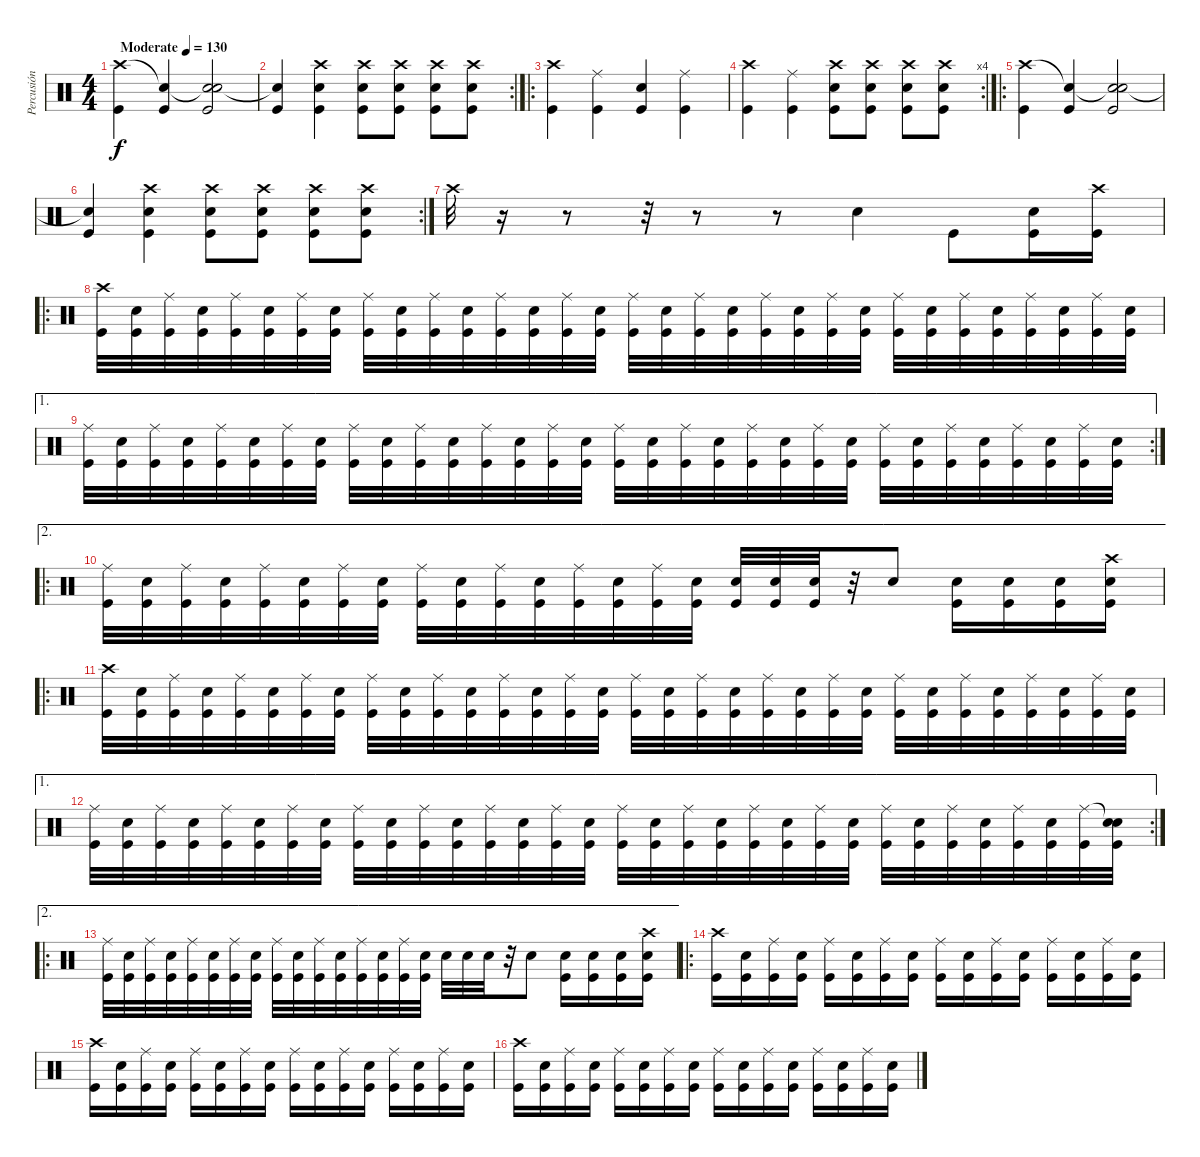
\track ("Percusión" "Percusión") {instrument percussion}
\staff {score}
\articulation defaults
\ts (4 4)
\tempo (130 "Moderate")
\clef neutral
\ks c
("Crash high (hit)" "Kick (hit)").4{dy f} ("Snare (hit)"{t} "Kick (hit)").4 ("Snare (hit)"{t} "Snare (hit) 2" "Kick (hit)").2 |
\rc 2
("Snare (hit)"{t} "Kick (hit)").4 ("Crash high (hit)" "Snare (hit) 2" "Kick (hit)").4 ("Crash high (hit)" "Snare (hit) 2" "Kick (hit)").8 ("Crash high (hit)" "Snare (hit) 2" "Kick (hit)").8 ("Crash high (hit)" "Snare (hit) 2" "Kick (hit)").8 ("Crash high (hit)" "Snare (hit) 2" "Kick (hit)").8 |
\ro
("Crash high (hit)" "Kick (hit)").4 ("Ride (middle)" "Kick (hit)").4 ("Electric Snare (hit)" "Kick (hit)").4 ("Ride (middle)" "Kick (hit)").4 |
\rc 4
("Crash high (hit)" "Kick (hit)").4 ("Ride (middle)" "Kick (hit)").4 ("Crash high (hit)" "Snare (hit) 2" "Kick (hit)").8 ("Crash high (hit)" "Snare (hit) 2" "Kick (hit)").8 ("Crash high (hit)" "Snare (hit) 2" "Kick (hit)").8 ("Crash high (hit)" "Snare (hit) 2" "Kick (hit)").8 |
\ro
("Crash high (hit)" "Kick (hit)").4 ("Snare (hit)"{t} "Kick (hit)").4 ("Snare (hit)"{t} "Snare (hit) 2" "Kick (hit)").2 |
\rc 2
("Snare (hit)"{t} "Kick (hit)").4 ("Crash high (hit)" "Snare (hit) 2" "Kick (hit)").4 ("Crash high (hit)" "Snare (hit) 2" "Kick (hit)").8 ("Crash high (hit)" "Snare (hit) 2" "Kick (hit)").8 ("Crash high (hit)" "Snare (hit) 2" "Kick (hit)").8 ("Crash high (hit)" "Snare (hit) 2" "Kick (hit)").8 |
"Crash high (hit)".32 r.16 r.8 r.32 r.8 r.8 "Electric Snare (hit)".4 "Kick (hit)".8 ("Electric Snare (hit)" "Kick (hit)").16 ("Crash high (hit)" "Kick (hit)").16 |
\ro
("Crash high (hit)" "Kick (hit)").32 ("Electric Snare (hit)" "Kick (hit)").32 ("Ride (middle)" "Kick (hit)").32 ("Electric Snare (hit)" "Kick (hit)").32 ("Ride (middle)" "Kick (hit)").32 ("Electric Snare (hit)" "Kick (hit)").32 ("Ride (middle)" "Kick (hit)").32 ("Electric Snare (hit)" "Kick (hit)").32 ("Ride (middle)" "Kick (hit)").32 ("Electric Snare (hit)" "Kick (hit)").32 ("Ride (middle)" "Kick (hit)").32 ("Electric Snare (hit)" "Kick (hit)").32 ("Ride (middle)" "Kick (hit)").32 ("Electric Snare (hit)" "Kick (hit)").32 ("Ride (middle)" "Kick (hit)").32 ("Electric Snare (hit)" "Kick (hit)").32 ("Ride (middle)" "Kick (hit)").32 ("Electric Snare (hit)" "Kick (hit)").32 ("Ride (middle)" "Kick (hit)").32 ("Electric Snare (hit)" "Kick (hit)").32 ("Ride (middle)" "Kick (hit)").32 ("Electric Snare (hit)" "Kick (hit)").32 ("Ride (middle)" "Kick (hit)").32 ("Electric Snare (hit)" "Kick (hit)").32 ("Ride (middle)" "Kick (hit)").32 ("Electric Snare (hit)" "Kick (hit)").32 ("Ride (middle)" "Kick (hit)").32 ("Electric Snare (hit)" "Kick (hit)").32 ("Ride (middle)" "Kick (hit)").32 ("Electric Snare (hit)" "Kick (hit)").32 ("Ride (middle)" "Kick (hit)").32 ("Electric Snare (hit)" "Kick (hit)").32 |
\ae 1
\rc 2
("Ride (middle)" "Kick (hit)").32 ("Electric Snare (hit)" "Kick (hit)").32 ("Ride (middle)" "Kick (hit)").32 ("Electric Snare (hit)" "Kick (hit)").32 ("Ride (middle)" "Kick (hit)").32 ("Electric Snare (hit)" "Kick (hit)").32 ("Ride (middle)" "Kick (hit)").32 ("Electric Snare (hit)" "Kick (hit)").32 ("Ride (middle)" "Kick (hit)").32 ("Electric Snare (hit)" "Kick (hit)").32 ("Ride (middle)" "Kick (hit)").32 ("Electric Snare (hit)" "Kick (hit)").32 ("Ride (middle)" "Kick (hit)").32 ("Electric Snare (hit)" "Kick (hit)").32 ("Ride (middle)" "Kick (hit)").32 ("Electric Snare (hit)" "Kick (hit)").32 ("Ride (middle)" "Kick (hit)").32 ("Electric Snare (hit)" "Kick (hit)").32 ("Ride (middle)" "Kick (hit)").32 ("Electric Snare (hit)" "Kick (hit)").32 ("Ride (middle)" "Kick (hit)").32 ("Electric Snare (hit)" "Kick (hit)").32 ("Ride (middle)" "Kick (hit)").32 ("Electric Snare (hit)" "Kick (hit)").32 ("Ride (middle)" "Kick (hit)").32 ("Electric Snare (hit)" "Kick (hit)").32 ("Ride (middle)" "Kick (hit)").32 ("Electric Snare (hit)" "Kick (hit)").32 ("Ride (middle)" "Kick (hit)").32 ("Electric Snare (hit)" "Kick (hit)").32 ("Ride (middle)" "Kick (hit)").32 ("Electric Snare (hit)" "Kick (hit)").32 |
\ae 2
\ro
("Ride (middle)" "Kick (hit)").32 ("Electric Snare (hit)" "Kick (hit)").32 ("Ride (middle)" "Kick (hit)").32 ("Electric Snare (hit)" "Kick (hit)").32 ("Ride (middle)" "Kick (hit)").32 ("Electric Snare (hit)" "Kick (hit)").32 ("Ride (middle)" "Kick (hit)").32 ("Electric Snare (hit)" "Kick (hit)").32 ("Ride (middle)" "Kick (hit)").32 ("Electric Snare (hit)" "Kick (hit)").32 ("Ride (middle)" "Kick (hit)").32 ("Electric Snare (hit)" "Kick (hit)").32 ("Ride (middle)" "Kick (hit)").32 ("Electric Snare (hit)" "Kick (hit)").32 ("Ride (middle)" "Kick (hit)").32 ("Electric Snare (hit)" "Kick (hit)").32 ("Electric Snare (hit)" "Kick (hit)").32 ("Electric Snare (hit)" "Kick (hit)").32 ("Electric Snare (hit)" "Kick (hit)").32 r.32 "Electric Snare (hit)".8 ("Electric Snare (hit)" "Kick (hit)").16 ("Electric Snare (hit)" "Kick (hit)").16 ("Electric Snare (hit)" "Kick (hit)").16 ("Crash high (hit)" "Electric Snare (hit)" "Kick (hit)").16 |
\ro
("Crash high (hit)" "Kick (hit)").32 ("Electric Snare (hit)" "Kick (hit)").32 ("Ride (middle)" "Kick (hit)").32 ("Electric Snare (hit)" "Kick (hit)").32 ("Ride (middle)" "Kick (hit)").32 ("Electric Snare (hit)" "Kick (hit)").32 ("Ride (middle)" "Kick (hit)").32 ("Electric Snare (hit)" "Kick (hit)").32 ("Ride (middle)" "Kick (hit)").32 ("Electric Snare (hit)" "Kick (hit)").32 ("Ride (middle)" "Kick (hit)").32 ("Electric Snare (hit)" "Kick (hit)").32 ("Ride (middle)" "Kick (hit)").32 ("Electric Snare (hit)" "Kick (hit)").32 ("Ride (middle)" "Kick (hit)").32 ("Electric Snare (hit)" "Kick (hit)").32 ("Ride (middle)" "Kick (hit)").32 ("Electric Snare (hit)" "Kick (hit)").32 ("Ride (middle)" "Kick (hit)").32 ("Electric Snare (hit)" "Kick (hit)").32 ("Ride (middle)" "Kick (hit)").32 ("Electric Snare (hit)" "Kick (hit)").32 ("Ride (middle)" "Kick (hit)").32 ("Electric Snare (hit)" "Kick (hit)").32 ("Ride (middle)" "Kick (hit)").32 ("Electric Snare (hit)" "Kick (hit)").32 ("Ride (middle)" "Kick (hit)").32 ("Electric Snare (hit)" "Kick (hit)").32 ("Ride (middle)" "Kick (hit)").32 ("Electric Snare (hit)" "Kick (hit)").32 ("Ride (middle)" "Kick (hit)").32 ("Electric Snare (hit)" "Kick (hit)").32 |
\ae 1
\rc 2
("Ride (middle)" "Kick (hit)").32 ("Electric Snare (hit)" "Kick (hit)").32 ("Ride (middle)" "Kick (hit)").32 ("Electric Snare (hit)" "Kick (hit)").32 ("Ride (middle)" "Kick (hit)").32 ("Electric Snare (hit)" "Kick (hit)").32 ("Ride (middle)" "Kick (hit)").32 ("Electric Snare (hit)" "Kick (hit)").32 ("Ride (middle)" "Kick (hit)").32 ("Electric Snare (hit)" "Kick (hit)").32 ("Ride (middle)" "Kick (hit)").32 ("Electric Snare (hit)" "Kick (hit)").32 ("Ride (middle)" "Kick (hit)").32 ("Electric Snare (hit)" "Kick (hit)").32 ("Ride (middle)" "Kick (hit)").32 ("Electric Snare (hit)" "Kick (hit)").32 ("Ride (middle)" "Kick (hit)").32 ("Electric Snare (hit)" "Kick (hit)").32 ("Ride (middle)" "Kick (hit)").32 ("Electric Snare (hit)" "Kick (hit)").32 ("Ride (middle)" "Kick (hit)").32 ("Electric Snare (hit)" "Kick (hit)").32 ("Ride (middle)" "Kick (hit)").32 ("Electric Snare (hit)" "Kick (hit)").32 ("Ride (middle)" "Kick (hit)").32 ("Electric Snare (hit)" "Kick (hit)").32 ("Ride (middle)" "Kick (hit)").32 ("Electric Snare (hit)" "Kick (hit)").32 ("Ride (middle)" "Kick (hit)").32 ("Electric Snare (hit)" "Kick (hit)").32 ("Ride (middle)" "Kick (hit)").32 ("Snare (hit)"{t} "Electric Snare (hit)" "Kick (hit)").32 |
\ae 2
\ro
("Ride (middle)" "Kick (hit)").32 ("Electric Snare (hit)" "Kick (hit)").32 ("Ride (middle)" "Kick (hit)").32 ("Electric Snare (hit)" "Kick (hit)").32 ("Ride (middle)" "Kick (hit)").32 ("Electric Snare (hit)" "Kick (hit)").32 ("Ride (middle)" "Kick (hit)").32 ("Electric Snare (hit)" "Kick (hit)").32 ("Ride (middle)" "Kick (hit)").32 ("Electric Snare (hit)" "Kick (hit)").32 ("Ride (middle)" "Kick (hit)").32 ("Electric Snare (hit)" "Kick (hit)").32 ("Ride (middle)" "Kick (hit)").32 ("Electric Snare (hit)" "Kick (hit)").32 ("Ride (middle)" "Kick (hit)").32 ("Electric Snare (hit)" "Kick (hit)").32 "Electric Snare (hit)".32 "Electric Snare (hit)".32 "Electric Snare (hit)".32 r.32 "Electric Snare (hit)".8 ("Electric Snare (hit)" "Kick (hit)").16 ("Electric Snare (hit)" "Kick (hit)").16 ("Electric Snare (hit)" "Kick (hit)").16 ("Crash high (hit)" "Electric Snare (hit)" "Kick (hit)").16 |
\ro
("Crash high (hit)" "Kick (hit)").16 ("Electric Snare (hit)" "Kick (hit)").16 ("Ride (middle)" "Kick (hit)").16 ("Electric Snare (hit)" "Kick (hit)").16 ("Ride (middle)" "Kick (hit)").16 ("Electric Snare (hit)" "Kick (hit)").16 ("Ride (middle)" "Kick (hit)").16 ("Electric Snare (hit)" "Kick (hit)").16 ("Ride (middle)" "Kick (hit)").16 ("Electric Snare (hit)" "Kick (hit)").16 ("Ride (middle)" "Kick (hit)").16 ("Electric Snare (hit)" "Kick (hit)").16 ("Ride (middle)" "Kick (hit)").16 ("Electric Snare (hit)" "Kick (hit)").16 ("Ride (middle)" "Kick (hit)").16 ("Electric Snare (hit)" "Kick (hit)").16 |
("Crash high (hit)" "Kick (hit)").16 ("Electric Snare (hit)" "Kick (hit)").16 ("Ride (middle)" "Kick (hit)").16 ("Electric Snare (hit)" "Kick (hit)").16 ("Ride (middle)" "Kick (hit)").16 ("Electric Snare (hit)" "Kick (hit)").16 ("Ride (middle)" "Kick (hit)").16 ("Electric Snare (hit)" "Kick (hit)").16 ("Ride (middle)" "Kick (hit)").16 ("Electric Snare (hit)" "Kick (hit)").16 ("Ride (middle)" "Kick (hit)").16 ("Electric Snare (hit)" "Kick (hit)").16 ("Ride (middle)" "Kick (hit)").16 ("Electric Snare (hit)" "Kick (hit)").16 ("Ride (middle)" "Kick (hit)").16 ("Electric Snare (hit)" "Kick (hit)").16 |
("Crash high (hit)" "Kick (hit)").16 ("Electric Snare (hit)" "Kick (hit)").16 ("Ride (middle)" "Kick (hit)").16 ("Electric Snare (hit)" "Kick (hit)").16 ("Ride (middle)" "Kick (hit)").16 ("Electric Snare (hit)" "Kick (hit)").16 ("Ride (middle)" "Kick (hit)").16 ("Electric Snare (hit)" "Kick (hit)").16 ("Ride (middle)" "Kick (hit)").16 ("Electric Snare (hit)" "Kick (hit)").16 ("Ride (middle)" "Kick (hit)").16 ("Electric Snare (hit)" "Kick (hit)").16 ("Ride (middle)" "Kick (hit)").16 ("Electric Snare (hit)" "Kick (hit)").16 ("Ride (middle)" "Kick (hit)").16 ("Electric Snare (hit)" "Kick (hit)").16
